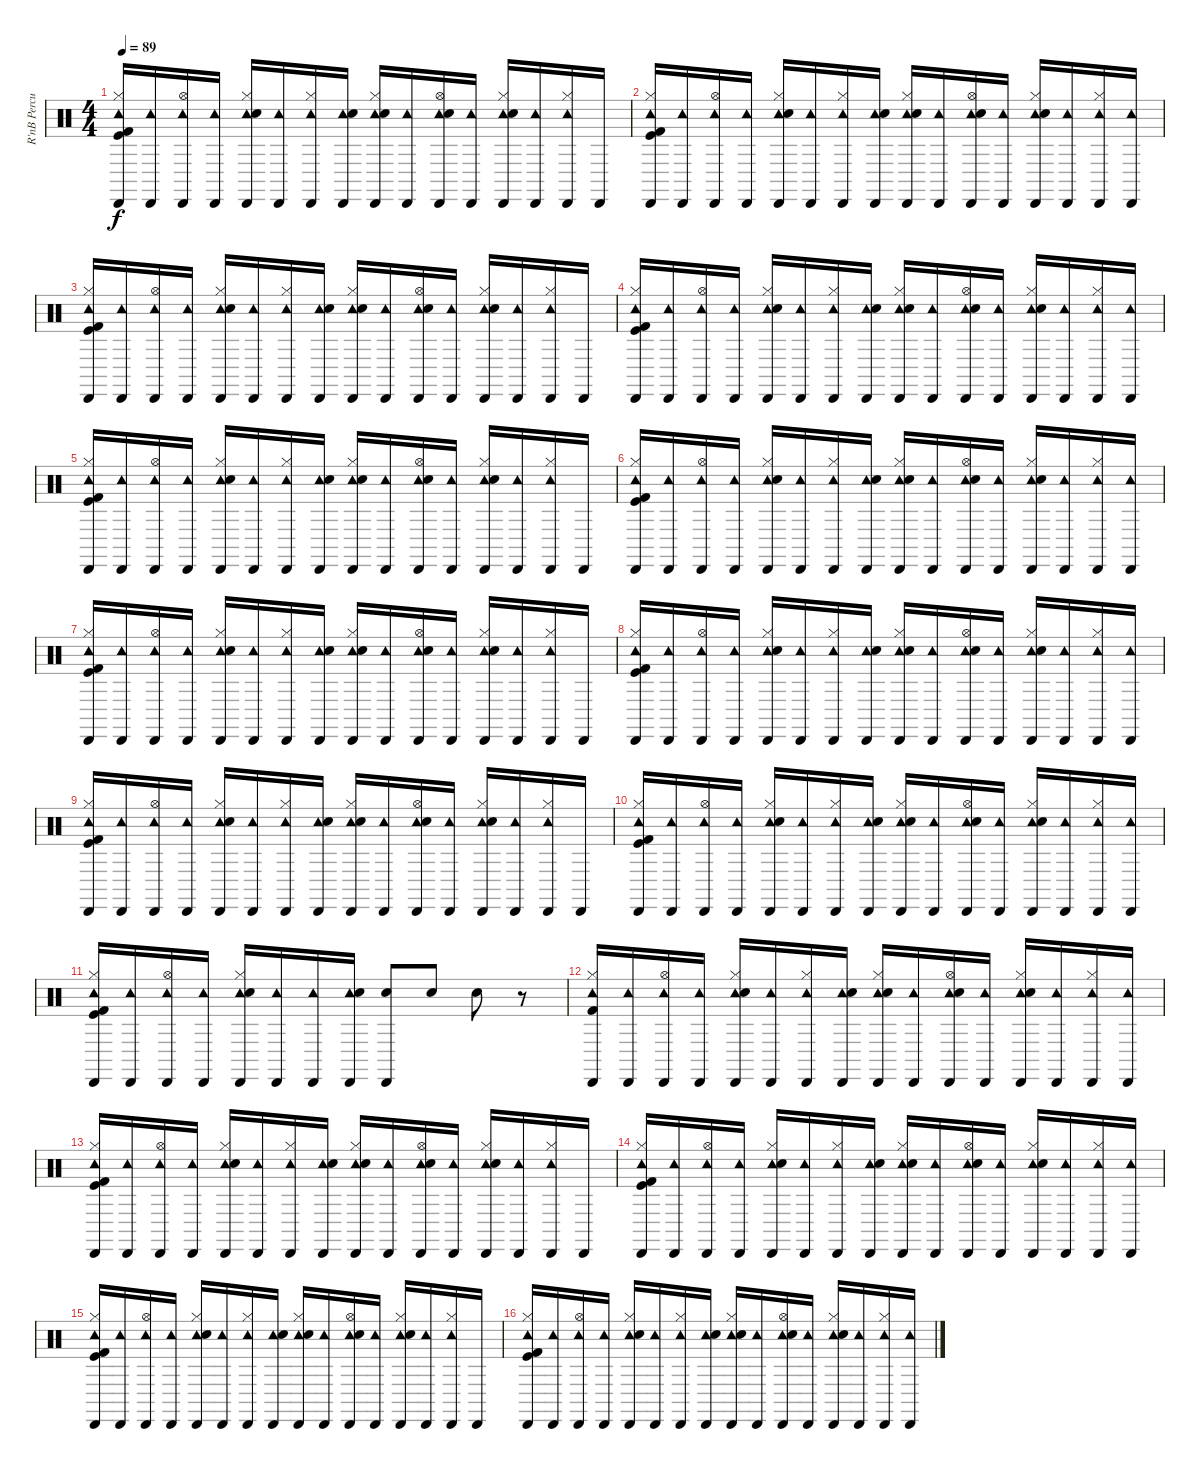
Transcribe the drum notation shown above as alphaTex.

\track ("R'nB Percussion" "R'nB Percu") {instrument percussion}
\staff {score}
\articulation defaults
\ts (4 4)
\tempo 89
\clef neutral
\ks c
("Tambourine (hit)" "Cabasa (hit)" "Kick (hit) 2" "Hi-Hat (closed)" "Kick (hit)").16{dy f} ("Cabasa (hit)" "Tambourine (hit)").16 ("Tambourine (hit)" "Cabasa (hit)" "Hi-Hat (open)").16 ("Tambourine (hit)" "Cabasa (hit)").16 ("Tambourine (hit)" "Cabasa (hit)" "Hi-Hat (closed)" "Hand Clap (hit)").16 ("Cabasa (hit)" "Tambourine (hit)").16 ("Cabasa (hit)" "Tambourine (hit)" "Hi-Hat (closed)").16 ("Cabasa (hit)" "Tambourine (hit)" "Hand Clap (hit)").16 ("Cabasa (hit)" "Tambourine (hit)" "Hand Clap (hit)" "Hi-Hat (closed)").16 ("Cabasa (hit)" "Tambourine (hit)").16 ("Tambourine (hit)" "Cabasa (hit)" "Hi-Hat (open)" "Hand Clap (hit)").16 ("Tambourine (hit)" "Cabasa (hit)").16 ("Cabasa (hit)" "Tambourine (hit)" "Hi-Hat (closed)" "Hand Clap (hit)").16 ("Cabasa (hit)" "Tambourine (hit)").16 ("Tambourine (hit)" "Cabasa (hit)" "Hi-Hat (closed)").16 "Cabasa (hit)".16 |
("Cabasa (hit)" "Tambourine (hit)" "Hi-Hat (closed)" "Kick (hit)" "Kick (hit) 2").16 ("Tambourine (hit)" "Cabasa (hit)").16 ("Cabasa (hit)" "Tambourine (hit)" "Hi-Hat (open)").16 ("Cabasa (hit)" "Tambourine (hit)").16 ("Cabasa (hit)" "Tambourine (hit)" "Hi-Hat (closed)" "Hand Clap (hit)").16 ("Tambourine (hit)" "Cabasa (hit)").16 ("Cabasa (hit)" "Tambourine (hit)" "Hi-Hat (closed)").16 ("Tambourine (hit)" "Cabasa (hit)" "Hand Clap (hit)").16 ("Cabasa (hit)" "Tambourine (hit)" "Hand Clap (hit)" "Hi-Hat (closed)").16 ("Tambourine (hit)" "Cabasa (hit)").16 ("Cabasa (hit)" "Tambourine (hit)" "Hi-Hat (open)" "Hand Clap (hit)").16 ("Tambourine (hit)" "Cabasa (hit)").16 ("Cabasa (hit)" "Tambourine (hit)" "Hi-Hat (closed)" "Hand Clap (hit)").16 ("Tambourine (hit)" "Cabasa (hit)").16 ("Tambourine (hit)" "Cabasa (hit)" "Hi-Hat (closed)").16 ("Tambourine (hit)" "Cabasa (hit)").16 |
("Cabasa (hit)" "Tambourine (hit)" "Kick (hit)" "Hi-Hat (closed)" "Kick (hit) 2").16 ("Tambourine (hit)" "Cabasa (hit)").16 ("Cabasa (hit)" "Tambourine (hit)" "Hi-Hat (open)").16 ("Cabasa (hit)" "Tambourine (hit)").16 ("Tambourine (hit)" "Cabasa (hit)" "Hand Clap (hit)" "Hi-Hat (closed)").16 ("Cabasa (hit)" "Tambourine (hit)").16 ("Cabasa (hit)" "Tambourine (hit)" "Hi-Hat (closed)").16 ("Tambourine (hit)" "Cabasa (hit)" "Hand Clap (hit)").16 ("Tambourine (hit)" "Cabasa (hit)" "Hi-Hat (closed)" "Hand Clap (hit)").16 ("Tambourine (hit)" "Cabasa (hit)").16 ("Cabasa (hit)" "Tambourine (hit)" "Hand Clap (hit)" "Hi-Hat (open)").16 ("Tambourine (hit)" "Cabasa (hit)").16 ("Cabasa (hit)" "Tambourine (hit)" "Hand Clap (hit)" "Hi-Hat (closed)").16 ("Cabasa (hit)" "Tambourine (hit)").16 ("Tambourine (hit)" "Cabasa (hit)" "Hi-Hat (closed)").16 "Cabasa (hit)".16 |
("Tambourine (hit)" "Cabasa (hit)" "Kick (hit)" "Kick (hit) 2" "Hi-Hat (closed)").16 ("Tambourine (hit)" "Cabasa (hit)").16 ("Tambourine (hit)" "Cabasa (hit)" "Hi-Hat (open)").16 ("Tambourine (hit)" "Cabasa (hit)").16 ("Cabasa (hit)" "Tambourine (hit)" "Hand Clap (hit)" "Hi-Hat (closed)").16 ("Tambourine (hit)" "Cabasa (hit)").16 ("Tambourine (hit)" "Cabasa (hit)" "Hi-Hat (closed)").16 ("Cabasa (hit)" "Tambourine (hit)" "Hand Clap (hit)").16 ("Cabasa (hit)" "Tambourine (hit)" "Hand Clap (hit)" "Hi-Hat (closed)").16 ("Cabasa (hit)" "Tambourine (hit)").16 ("Cabasa (hit)" "Tambourine (hit)" "Hand Clap (hit)" "Hi-Hat (open)").16 ("Cabasa (hit)" "Tambourine (hit)").16 ("Tambourine (hit)" "Cabasa (hit)" "Hi-Hat (closed)" "Hand Clap (hit)").16 ("Tambourine (hit)" "Cabasa (hit)").16 ("Tambourine (hit)" "Cabasa (hit)" "Hi-Hat (closed)").16 ("Cabasa (hit)" "Tambourine (hit)").16 |
("Tambourine (hit)" "Cabasa (hit)" "Kick (hit)" "Kick (hit) 2" "Hi-Hat (closed)").16 ("Tambourine (hit)" "Cabasa (hit)").16 ("Tambourine (hit)" "Cabasa (hit)" "Hi-Hat (open)").16 ("Cabasa (hit)" "Tambourine (hit)").16 ("Tambourine (hit)" "Cabasa (hit)" "Hand Clap (hit)" "Hi-Hat (closed)").16 ("Cabasa (hit)" "Tambourine (hit)").16 ("Cabasa (hit)" "Tambourine (hit)" "Hi-Hat (closed)").16 ("Cabasa (hit)" "Tambourine (hit)" "Hand Clap (hit)").16 ("Cabasa (hit)" "Tambourine (hit)" "Hi-Hat (closed)" "Hand Clap (hit)").16 ("Cabasa (hit)" "Tambourine (hit)").16 ("Tambourine (hit)" "Cabasa (hit)" "Hand Clap (hit)" "Hi-Hat (open)").16 ("Cabasa (hit)" "Tambourine (hit)").16 ("Tambourine (hit)" "Cabasa (hit)" "Hi-Hat (closed)" "Hand Clap (hit)").16 ("Tambourine (hit)" "Cabasa (hit)").16 ("Cabasa (hit)" "Tambourine (hit)" "Hi-Hat (closed)").16 "Cabasa (hit)".16 |
("Cabasa (hit)" "Tambourine (hit)" "Kick (hit)" "Hi-Hat (closed)" "Kick (hit) 2").16 ("Tambourine (hit)" "Cabasa (hit)").16 ("Tambourine (hit)" "Cabasa (hit)" "Hi-Hat (open)").16 ("Cabasa (hit)" "Tambourine (hit)").16 ("Tambourine (hit)" "Cabasa (hit)" "Hand Clap (hit)" "Hi-Hat (closed)").16 ("Cabasa (hit)" "Tambourine (hit)").16 ("Cabasa (hit)" "Tambourine (hit)" "Hi-Hat (closed)").16 ("Tambourine (hit)" "Cabasa (hit)" "Hand Clap (hit)").16 ("Cabasa (hit)" "Tambourine (hit)" "Hand Clap (hit)" "Hi-Hat (closed)").16 ("Tambourine (hit)" "Cabasa (hit)").16 ("Cabasa (hit)" "Tambourine (hit)" "Hi-Hat (open)" "Hand Clap (hit)").16 ("Cabasa (hit)" "Tambourine (hit)").16 ("Cabasa (hit)" "Tambourine (hit)" "Hand Clap (hit)" "Hi-Hat (closed)").16 ("Cabasa (hit)" "Tambourine (hit)").16 ("Cabasa (hit)" "Tambourine (hit)" "Hi-Hat (closed)").16 ("Cabasa (hit)" "Tambourine (hit)").16 |
("Cabasa (hit)" "Tambourine (hit)" "Kick (hit) 2" "Hi-Hat (closed)" "Kick (hit)").16 ("Cabasa (hit)" "Tambourine (hit)").16 ("Tambourine (hit)" "Cabasa (hit)" "Hi-Hat (open)").16 ("Tambourine (hit)" "Cabasa (hit)").16 ("Cabasa (hit)" "Tambourine (hit)" "Hand Clap (hit)" "Hi-Hat (closed)").16 ("Cabasa (hit)" "Tambourine (hit)").16 ("Cabasa (hit)" "Tambourine (hit)" "Hi-Hat (closed)").16 ("Tambourine (hit)" "Cabasa (hit)" "Hand Clap (hit)").16 ("Cabasa (hit)" "Tambourine (hit)" "Hi-Hat (closed)" "Hand Clap (hit)").16 ("Cabasa (hit)" "Tambourine (hit)").16 ("Tambourine (hit)" "Cabasa (hit)" "Hi-Hat (open)" "Hand Clap (hit)").16 ("Tambourine (hit)" "Cabasa (hit)").16 ("Cabasa (hit)" "Tambourine (hit)" "Hi-Hat (closed)" "Hand Clap (hit)").16 ("Cabasa (hit)" "Tambourine (hit)").16 ("Tambourine (hit)" "Cabasa (hit)" "Hi-Hat (closed)").16 "Cabasa (hit)".16 |
("Tambourine (hit)" "Cabasa (hit)" "Hi-Hat (closed)" "Kick (hit) 2" "Kick (hit)").16 ("Cabasa (hit)" "Tambourine (hit)").16 ("Cabasa (hit)" "Tambourine (hit)" "Hi-Hat (open)").16 ("Tambourine (hit)" "Cabasa (hit)").16 ("Tambourine (hit)" "Cabasa (hit)" "Hand Clap (hit)" "Hi-Hat (closed)").16 ("Tambourine (hit)" "Cabasa (hit)").16 ("Cabasa (hit)" "Tambourine (hit)" "Hi-Hat (closed)").16 ("Tambourine (hit)" "Cabasa (hit)" "Hand Clap (hit)").16 ("Tambourine (hit)" "Cabasa (hit)" "Hi-Hat (closed)" "Hand Clap (hit)").16 ("Tambourine (hit)" "Cabasa (hit)").16 ("Cabasa (hit)" "Tambourine (hit)" "Hi-Hat (open)" "Hand Clap (hit)").16 ("Tambourine (hit)" "Cabasa (hit)").16 ("Tambourine (hit)" "Cabasa (hit)" "Hand Clap (hit)" "Hi-Hat (closed)").16 ("Tambourine (hit)" "Cabasa (hit)").16 ("Tambourine (hit)" "Cabasa (hit)" "Hi-Hat (closed)").16 ("Cabasa (hit)" "Tambourine (hit)").16 |
("Tambourine (hit)" "Cabasa (hit)" "Hi-Hat (closed)" "Kick (hit) 2" "Kick (hit)").16 ("Cabasa (hit)" "Tambourine (hit)").16 ("Cabasa (hit)" "Tambourine (hit)" "Hi-Hat (open)").16 ("Cabasa (hit)" "Tambourine (hit)").16 ("Tambourine (hit)" "Cabasa (hit)" "Hand Clap (hit)" "Hi-Hat (closed)").16 ("Tambourine (hit)" "Cabasa (hit)").16 ("Cabasa (hit)" "Tambourine (hit)" "Hi-Hat (closed)").16 ("Tambourine (hit)" "Cabasa (hit)" "Hand Clap (hit)").16 ("Cabasa (hit)" "Tambourine (hit)" "Hand Clap (hit)" "Hi-Hat (closed)").16 ("Cabasa (hit)" "Tambourine (hit)").16 ("Cabasa (hit)" "Tambourine (hit)" "Hand Clap (hit)" "Hi-Hat (open)").16 ("Cabasa (hit)" "Tambourine (hit)").16 ("Cabasa (hit)" "Tambourine (hit)" "Hi-Hat (closed)" "Hand Clap (hit)").16 ("Cabasa (hit)" "Tambourine (hit)").16 ("Tambourine (hit)" "Cabasa (hit)" "Hi-Hat (closed)").16 "Cabasa (hit)".16 |
("Cabasa (hit)" "Tambourine (hit)" "Hi-Hat (closed)" "Kick (hit) 2" "Kick (hit)").16 ("Tambourine (hit)" "Cabasa (hit)").16 ("Cabasa (hit)" "Tambourine (hit)" "Hi-Hat (open)").16 ("Cabasa (hit)" "Tambourine (hit)").16 ("Tambourine (hit)" "Cabasa (hit)" "Hi-Hat (closed)" "Hand Clap (hit)").16 ("Cabasa (hit)" "Tambourine (hit)").16 ("Tambourine (hit)" "Cabasa (hit)" "Hi-Hat (closed)").16 ("Cabasa (hit)" "Tambourine (hit)" "Hand Clap (hit)").16 ("Tambourine (hit)" "Cabasa (hit)" "Hi-Hat (closed)" "Hand Clap (hit)").16 ("Cabasa (hit)" "Tambourine (hit)").16 ("Tambourine (hit)" "Cabasa (hit)" "Hi-Hat (open)" "Hand Clap (hit)").16 ("Tambourine (hit)" "Cabasa (hit)").16 ("Tambourine (hit)" "Cabasa (hit)" "Hand Clap (hit)" "Hi-Hat (closed)").16 ("Tambourine (hit)" "Cabasa (hit)").16 ("Cabasa (hit)" "Tambourine (hit)" "Hi-Hat (closed)").16 ("Cabasa (hit)" "Tambourine (hit)").16 |
("Tambourine (hit)" "Cabasa (hit)" "Kick (hit) 2" "Hi-Hat (closed)" "Kick (hit)").16 ("Tambourine (hit)" "Cabasa (hit)").16 ("Tambourine (hit)" "Cabasa (hit)" "Hi-Hat (open)").16 ("Tambourine (hit)" "Cabasa (hit)").16 ("Cabasa (hit)" "Tambourine (hit)" "Hand Clap (hit)" "Hi-Hat (closed)").16 ("Tambourine (hit)" "Cabasa (hit)").16 ("Cabasa (hit)" "Tambourine (hit)").16 ("Tambourine (hit)" "Cabasa (hit)" "Hand Clap (hit)").16 ("Cabasa (hit)" "Hand Clap (hit)").8 "Hand Clap (hit)".8 "Hand Clap (hit)".8 r.8 |
("Tambourine (hit)" "Cabasa (hit)" "Kick (hit) 2" "Hi-Hat (closed)").16 ("Tambourine (hit)" "Cabasa (hit)").16 ("Tambourine (hit)" "Cabasa (hit)" "Hi-Hat (open)").16 ("Tambourine (hit)" "Cabasa (hit)").16 ("Cabasa (hit)" "Tambourine (hit)" "Hi-Hat (closed)" "Hand Clap (hit)").16 ("Cabasa (hit)" "Tambourine (hit)").16 ("Tambourine (hit)" "Cabasa (hit)" "Hi-Hat (closed)").16 ("Tambourine (hit)" "Cabasa (hit)" "Hand Clap (hit)").16 ("Cabasa (hit)" "Tambourine (hit)" "Hi-Hat (closed)" "Hand Clap (hit)").16 ("Tambourine (hit)" "Cabasa (hit)").16 ("Cabasa (hit)" "Tambourine (hit)" "Hi-Hat (open)" "Hand Clap (hit)").16 ("Cabasa (hit)" "Tambourine (hit)").16 ("Tambourine (hit)" "Cabasa (hit)" "Hi-Hat (closed)" "Hand Clap (hit)").16 ("Cabasa (hit)" "Tambourine (hit)").16 ("Tambourine (hit)" "Cabasa (hit)" "Hi-Hat (closed)").16 ("Cabasa (hit)" "Tambourine (hit)").16 |
("Cabasa (hit)" "Tambourine (hit)" "Kick (hit) 2" "Hi-Hat (closed)" "Kick (hit)").16 ("Tambourine (hit)" "Cabasa (hit)").16 ("Tambourine (hit)" "Cabasa (hit)" "Hi-Hat (open)").16 ("Tambourine (hit)" "Cabasa (hit)").16 ("Tambourine (hit)" "Cabasa (hit)" "Hi-Hat (closed)" "Hand Clap (hit)").16 ("Tambourine (hit)" "Cabasa (hit)").16 ("Cabasa (hit)" "Tambourine (hit)" "Hi-Hat (closed)").16 ("Tambourine (hit)" "Cabasa (hit)" "Hand Clap (hit)").16 ("Cabasa (hit)" "Tambourine (hit)" "Hand Clap (hit)" "Hi-Hat (closed)").16 ("Tambourine (hit)" "Cabasa (hit)").16 ("Cabasa (hit)" "Tambourine (hit)" "Hi-Hat (open)" "Hand Clap (hit)").16 ("Cabasa (hit)" "Tambourine (hit)").16 ("Cabasa (hit)" "Tambourine (hit)" "Hi-Hat (closed)" "Hand Clap (hit)").16 ("Cabasa (hit)" "Tambourine (hit)").16 ("Cabasa (hit)" "Tambourine (hit)" "Hi-Hat (closed)").16 "Cabasa (hit)".16 |
("Tambourine (hit)" "Cabasa (hit)" "Kick (hit) 2" "Hi-Hat (closed)" "Kick (hit)").16 ("Cabasa (hit)" "Tambourine (hit)").16 ("Cabasa (hit)" "Tambourine (hit)" "Hi-Hat (open)").16 ("Cabasa (hit)" "Tambourine (hit)").16 ("Tambourine (hit)" "Cabasa (hit)" "Hi-Hat (closed)" "Hand Clap (hit)").16 ("Cabasa (hit)" "Tambourine (hit)").16 ("Tambourine (hit)" "Cabasa (hit)" "Hi-Hat (closed)").16 ("Cabasa (hit)" "Tambourine (hit)" "Hand Clap (hit)").16 ("Cabasa (hit)" "Tambourine (hit)" "Hi-Hat (closed)" "Hand Clap (hit)").16 ("Cabasa (hit)" "Tambourine (hit)").16 ("Tambourine (hit)" "Cabasa (hit)" "Hi-Hat (open)" "Hand Clap (hit)").16 ("Cabasa (hit)" "Tambourine (hit)").16 ("Tambourine (hit)" "Cabasa (hit)" "Hi-Hat (closed)" "Hand Clap (hit)").16 ("Cabasa (hit)" "Tambourine (hit)").16 ("Tambourine (hit)" "Cabasa (hit)" "Hi-Hat (closed)").16 ("Cabasa (hit)" "Tambourine (hit)").16 |
("Tambourine (hit)" "Cabasa (hit)" "Kick (hit) 2" "Hi-Hat (closed)" "Kick (hit)").16 ("Cabasa (hit)" "Tambourine (hit)").16 ("Cabasa (hit)" "Tambourine (hit)" "Hi-Hat (open)").16 ("Tambourine (hit)" "Cabasa (hit)").16 ("Cabasa (hit)" "Tambourine (hit)" "Hi-Hat (closed)" "Hand Clap (hit)").16 ("Cabasa (hit)" "Tambourine (hit)").16 ("Tambourine (hit)" "Cabasa (hit)" "Hi-Hat (closed)").16 ("Cabasa (hit)" "Tambourine (hit)" "Hand Clap (hit)").16 ("Cabasa (hit)" "Tambourine (hit)" "Hi-Hat (closed)" "Hand Clap (hit)").16 ("Cabasa (hit)" "Tambourine (hit)").16 ("Cabasa (hit)" "Tambourine (hit)" "Hand Clap (hit)" "Hi-Hat (open)").16 ("Tambourine (hit)" "Cabasa (hit)").16 ("Tambourine (hit)" "Cabasa (hit)" "Hi-Hat (closed)" "Hand Clap (hit)").16 ("Cabasa (hit)" "Tambourine (hit)").16 ("Cabasa (hit)" "Tambourine (hit)" "Hi-Hat (closed)").16 "Cabasa (hit)".16 |
("Tambourine (hit)" "Cabasa (hit)" "Kick (hit) 2" "Hi-Hat (closed)" "Kick (hit)").16 ("Tambourine (hit)" "Cabasa (hit)").16 ("Tambourine (hit)" "Cabasa (hit)" "Hi-Hat (open)").16 ("Cabasa (hit)" "Tambourine (hit)").16 ("Tambourine (hit)" "Cabasa (hit)" "Hi-Hat (closed)" "Hand Clap (hit)").16 ("Cabasa (hit)" "Tambourine (hit)").16 ("Tambourine (hit)" "Cabasa (hit)" "Hi-Hat (closed)").16 ("Cabasa (hit)" "Tambourine (hit)" "Hand Clap (hit)").16 ("Cabasa (hit)" "Tambourine (hit)" "Hi-Hat (closed)" "Hand Clap (hit)").16 ("Tambourine (hit)" "Cabasa (hit)").16 ("Tambourine (hit)" "Cabasa (hit)" "Hi-Hat (open)" "Hand Clap (hit)").16 ("Cabasa (hit)" "Tambourine (hit)").16 ("Cabasa (hit)" "Tambourine (hit)" "Hand Clap (hit)" "Hi-Hat (closed)").16 ("Cabasa (hit)" "Tambourine (hit)").16 ("Tambourine (hit)" "Cabasa (hit)" "Hi-Hat (closed)").16 ("Cabasa (hit)" "Tambourine (hit)").16
